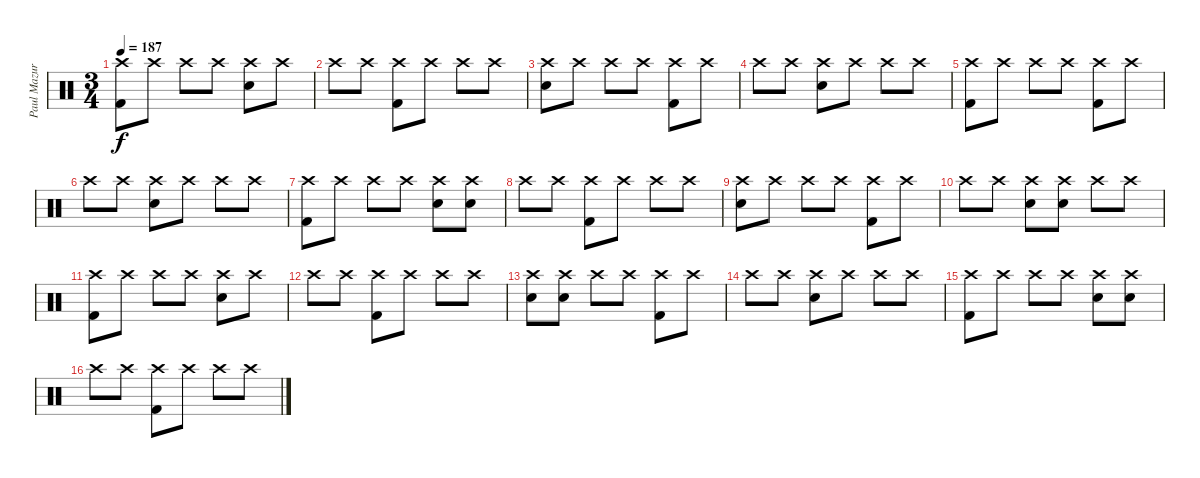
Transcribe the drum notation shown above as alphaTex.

\track ("Paul Mazurkiewicz - Drums" "Paul Mazur") {instrument percussion}
\staff {score}
\articulation defaults
\ts (3 4)
\tempo 187
\clef neutral
\ks c
("Crash high (hit)" "Kick (hit) 2").8{dy f} "Crash high (hit)".8 "Crash high (hit)".8 "Crash high (hit)".8 ("Crash high (hit)" "Snare (hit) 2").8 "Crash high (hit)".8 |
"Crash high (hit)".8 "Crash high (hit)".8 ("Crash high (hit)" "Kick (hit) 2").8 "Crash high (hit)".8 "Crash high (hit)".8 "Crash high (hit)".8 |
("Crash high (hit)" "Snare (hit) 2").8 "Crash high (hit)".8 "Crash high (hit)".8 "Crash high (hit)".8 ("Crash high (hit)" "Kick (hit) 2").8 "Crash high (hit)".8 |
"Crash high (hit)".8 "Crash high (hit)".8 ("Crash high (hit)" "Snare (hit) 2").8 "Crash high (hit)".8 "Crash high (hit)".8 "Crash high (hit)".8 |
("Crash high (hit)" "Kick (hit) 2").8 "Crash high (hit)".8 "Crash high (hit)".8 "Crash high (hit)".8 ("Crash high (hit)" "Kick (hit) 2").8 "Crash high (hit)".8 |
"Crash high (hit)".8 "Crash high (hit)".8 ("Crash high (hit)" "Snare (hit) 2").8 "Crash high (hit)".8 "Crash high (hit)".8 "Crash high (hit)".8 |
("Crash high (hit)" "Kick (hit) 2").8 "Crash high (hit)".8 "Crash high (hit)".8 "Crash high (hit)".8 ("Crash high (hit)" "Snare (hit) 2").8 ("Crash high (hit)" "Snare (hit) 2").8 |
"Crash high (hit)".8 "Crash high (hit)".8 ("Crash high (hit)" "Kick (hit) 2").8 "Crash high (hit)".8 "Crash high (hit)".8 "Crash high (hit)".8 |
("Crash high (hit)" "Snare (hit) 2").8 "Crash high (hit)".8 "Crash high (hit)".8 "Crash high (hit)".8 ("Crash high (hit)" "Kick (hit) 2").8 "Crash high (hit)".8 |
"Crash high (hit)".8 "Crash high (hit)".8 ("Crash high (hit)" "Snare (hit) 2").8 ("Crash high (hit)" "Snare (hit) 2").8 "Crash high (hit)".8 "Crash high (hit)".8 |
("Crash high (hit)" "Kick (hit) 2").8 "Crash high (hit)".8 "Crash high (hit)".8 "Crash high (hit)".8 ("Crash high (hit)" "Snare (hit) 2").8 "Crash high (hit)".8 |
"Crash high (hit)".8 "Crash high (hit)".8 ("Crash high (hit)" "Kick (hit) 2").8 "Crash high (hit)".8 "Crash high (hit)".8 "Crash high (hit)".8 |
("Crash high (hit)" "Snare (hit) 2").8 ("Crash high (hit)" "Snare (hit) 2").8 "Crash high (hit)".8 "Crash high (hit)".8 ("Crash high (hit)" "Kick (hit) 2").8 "Crash high (hit)".8 |
"Crash high (hit)".8 "Crash high (hit)".8 ("Crash high (hit)" "Snare (hit) 2").8 "Crash high (hit)".8 "Crash high (hit)".8 "Crash high (hit)".8 |
("Crash high (hit)" "Kick (hit) 2").8 "Crash high (hit)".8 "Crash high (hit)".8 "Crash high (hit)".8 ("Crash high (hit)" "Snare (hit) 2").8 ("Crash high (hit)" "Snare (hit) 2").8 |
"Crash high (hit)".8 "Crash high (hit)".8 ("Crash high (hit)" "Kick (hit) 2").8 "Crash high (hit)".8 "Crash high (hit)".8 "Crash high (hit)".8
